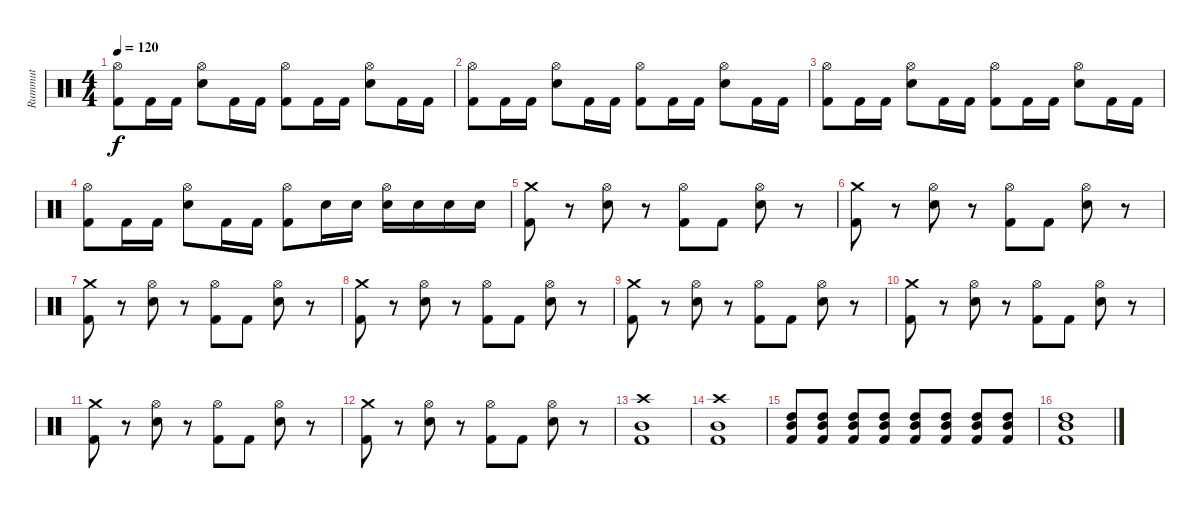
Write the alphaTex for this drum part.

\track ("Rummut" "Rummut") {instrument percussion}
\staff {score}
\articulation defaults
\ts (4 4)
\tempo 120
\clef neutral
\ks c
("Kick (hit) 2" "Hi-Hat (open)").8{dy f} "Kick (hit) 2".16 "Kick (hit) 2".16 ("Snare (hit) 2" "Hi-Hat (open)").8 "Kick (hit) 2".16 "Kick (hit) 2".16 ("Kick (hit) 2" "Hi-Hat (open)").8 "Kick (hit) 2".16 "Kick (hit) 2".16 ("Snare (hit) 2" "Hi-Hat (open)").8 "Kick (hit) 2".16 "Kick (hit) 2".16 |
("Kick (hit) 2" "Hi-Hat (open)").8 "Kick (hit) 2".16 "Kick (hit) 2".16 ("Snare (hit) 2" "Hi-Hat (open)").8 "Kick (hit) 2".16 "Kick (hit) 2".16 ("Kick (hit) 2" "Hi-Hat (open)").8 "Kick (hit) 2".16 "Kick (hit) 2".16 ("Snare (hit) 2" "Hi-Hat (open)").8 "Kick (hit) 2".16 "Kick (hit) 2".16 |
("Kick (hit) 2" "Hi-Hat (open)").8 "Kick (hit) 2".16 "Kick (hit) 2".16 ("Snare (hit) 2" "Hi-Hat (open)").8 "Kick (hit) 2".16 "Kick (hit) 2".16 ("Kick (hit) 2" "Hi-Hat (open)").8 "Kick (hit) 2".16 "Kick (hit) 2".16 ("Snare (hit) 2" "Hi-Hat (open)").8 "Kick (hit) 2".16 "Kick (hit) 2".16 |
("Kick (hit) 2" "Hi-Hat (open)").8 "Kick (hit) 2".16 "Kick (hit) 2".16 ("Snare (hit) 2" "Hi-Hat (open)").8 "Kick (hit) 2".16 "Kick (hit) 2".16 ("Kick (hit) 2" "Hi-Hat (open)").8 "Snare (hit) 2".16 "Snare (hit) 2".16 ("Snare (hit) 2" "Hi-Hat (open)").16 "Snare (hit) 2".16 "Snare (hit) 2".16 "Snare (hit) 2".16 |
("Kick (hit) 2" "Crash medium (hit)").8 r.8 ("Snare (hit) 2" "Hi-Hat (open)").8 r.8 ("Kick (hit) 2" "Hi-Hat (open)").8 "Kick (hit) 2".8 ("Snare (hit) 2" "Hi-Hat (open)").8 r.8 |
("Kick (hit) 2" "Crash medium (hit)").8 r.8 ("Snare (hit) 2" "Hi-Hat (open)").8 r.8 ("Kick (hit) 2" "Hi-Hat (open)").8 "Kick (hit) 2".8 ("Snare (hit) 2" "Hi-Hat (open)").8 r.8 |
("Kick (hit) 2" "Crash medium (hit)").8 r.8 ("Snare (hit) 2" "Hi-Hat (open)").8 r.8 ("Kick (hit) 2" "Hi-Hat (open)").8 "Kick (hit) 2".8 ("Snare (hit) 2" "Hi-Hat (open)").8 r.8 |
("Kick (hit) 2" "Crash medium (hit)").8 r.8 ("Snare (hit) 2" "Hi-Hat (open)").8 r.8 ("Kick (hit) 2" "Hi-Hat (open)").8 "Kick (hit) 2".8 ("Snare (hit) 2" "Hi-Hat (open)").8 r.8 |
("Kick (hit) 2" "Crash medium (hit)").8 r.8 ("Snare (hit) 2" "Hi-Hat (open)").8 r.8 ("Kick (hit) 2" "Hi-Hat (open)").8 "Kick (hit) 2".8 ("Snare (hit) 2" "Hi-Hat (open)").8 r.8 |
("Kick (hit) 2" "Crash medium (hit)").8 r.8 ("Snare (hit) 2" "Hi-Hat (open)").8 r.8 ("Kick (hit) 2" "Hi-Hat (open)").8 "Kick (hit) 2".8 ("Snare (hit) 2" "Hi-Hat (open)").8 r.8 |
("Kick (hit) 2" "Crash medium (hit)").8 r.8 ("Snare (hit) 2" "Hi-Hat (open)").8 r.8 ("Kick (hit) 2" "Hi-Hat (open)").8 "Kick (hit) 2".8 ("Snare (hit) 2" "Hi-Hat (open)").8 r.8 |
("Kick (hit) 2" "Crash medium (hit)").8 r.8 ("Snare (hit) 2" "Hi-Hat (open)").8 r.8 ("Kick (hit) 2" "Hi-Hat (open)").8 "Kick (hit) 2".8 ("Snare (hit) 2" "Hi-Hat (open)").8 r.8 |
("Kick (hit) 2" "Crash high (hit)" "Mid Tom (hit)").1 |
("Kick (hit) 2" "Crash high (hit)" "Mid Tom (hit)").1 |
("Kick (hit) 2" "High Tom (hit)" "Mid Tom (hit)").8 ("Kick (hit) 2" "High Tom (hit)" "Mid Tom (hit)").8 ("Kick (hit) 2" "High Tom (hit)" "Mid Tom (hit)").8 ("Kick (hit) 2" "High Tom (hit)" "Mid Tom (hit)").8 ("Kick (hit) 2" "High Tom (hit)" "Mid Tom (hit)").8 ("Kick (hit) 2" "High Tom (hit)" "Mid Tom (hit)").8 ("Kick (hit) 2" "High Tom (hit)" "Mid Tom (hit)").8 ("Kick (hit) 2" "High Tom (hit)" "Mid Tom (hit)").8 |
("Kick (hit) 2" "High Tom (hit)" "Mid Tom (hit)").1
